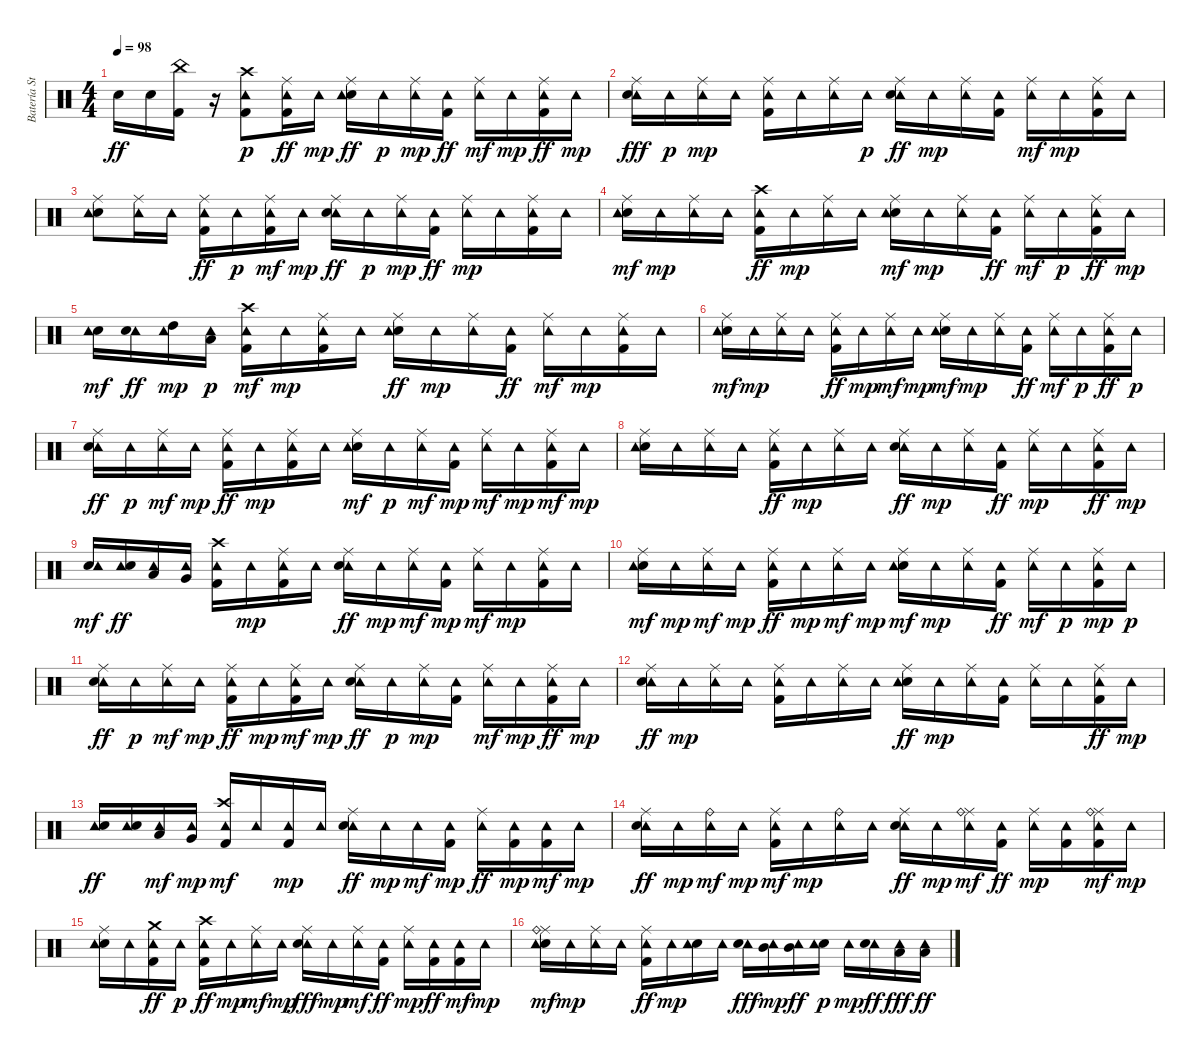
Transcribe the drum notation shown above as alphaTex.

\track ("Batería Standard" "Batería St") {instrument percussion}
\staff {score}
\articulation defaults
\ts (4 4)
\tempo 98
\clef neutral
\ks c "Electric Snare (hit)".16{dy ff} "Electric Snare (hit)".16
("China (hit)" "Kick (hit) 2").16 r.16 ("Crash high (hit)" "Kick (hit) 2" "Tambourine (hit)").8{dy p} ("Ride (middle)" "Tambourine (hit)" "Kick (hit) 2").16{dy ff} "Tambourine (hit)".16{dy mp} ("Electric Snare (hit)" "Tambourine (hit)" "Ride (middle)").16{dy ff} "Tambourine (hit)".16{dy p} ("Ride (middle)" "Tambourine (hit)").16{dy mp} ("Tambourine (hit)" "Kick (hit) 2").16{dy ff} ("Tambourine (hit)" "Ride (middle)").16{dy mf} "Tambourine (hit)".16{dy mp} ("Tambourine (hit)" "Ride (middle)" "Kick (hit) 2").16{dy ff} "Tambourine (hit)".16{dy mp} |
("Ride (middle)" "Tambourine (hit)" "Electric Snare (hit)").16{dy fff} "Tambourine (hit)".16{dy p} ("Ride (middle)" "Tambourine (hit)").16{dy mp} "Tambourine (hit)".16 ("Kick (hit) 2" "Ride (middle)" "Tambourine (hit)").16 "Tambourine (hit)".16 ("Ride (middle)" "Tambourine (hit)").16 "Tambourine (hit)".16{dy p} ("Tambourine (hit)" "Electric Snare (hit)" "Ride (middle)").16{dy ff} "Tambourine (hit)".16{dy mp} ("Ride (middle)" "Tambourine (hit)").16 ("Kick (hit) 2" "Tambourine (hit)").16 ("Ride (middle)" "Tambourine (hit)").16{dy mf} "Tambourine (hit)".16{dy mp} ("Ride (middle)" "Kick (hit) 2" "Tambourine (hit)").16 "Tambourine (hit)".16 |
("Ride (middle)" "Electric Snare (hit)" "Tambourine (hit)").8 ("Ride (middle)" "Tambourine (hit)").16 "Tambourine (hit)".16 ("Tambourine (hit)" "Ride (middle)" "Kick (hit) 2").16{dy ff} "Tambourine (hit)".16{dy p} ("Tambourine (hit)" "Ride (middle)" "Kick (hit) 2").16{dy mf} "Tambourine (hit)".16{dy mp} ("Tambourine (hit)" "Ride (middle)" "Electric Snare (hit)").16{dy ff} "Tambourine (hit)".16{dy p} ("Ride (middle)" "Tambourine (hit)").16{dy mp} ("Tambourine (hit)" "Kick (hit) 2").16{dy ff} ("Ride (middle)" "Tambourine (hit)").16{dy mp} "Tambourine (hit)".16 ("Kick (hit) 2" "Ride (middle)" "Tambourine (hit)").16 "Tambourine (hit)".16 |
("Ride (middle)" "Electric Snare (hit)" "Tambourine (hit)").16{dy mf} "Tambourine (hit)".16{dy mp} ("Tambourine (hit)" "Ride (middle)").16 "Tambourine (hit)".16 ("Kick (hit) 2" "Tambourine (hit)" "Crash high (hit)").16{dy ff} "Tambourine (hit)".16{dy mp} ("Ride (middle)" "Tambourine (hit)").16 "Tambourine (hit)".16 ("Electric Snare (hit)" "Ride (middle)" "Tambourine (hit)").16{dy mf} "Tambourine (hit)".16{dy mp} ("Ride (middle)" "Tambourine (hit)").16 ("Tambourine (hit)" "Kick (hit) 2").16{dy ff} ("Tambourine (hit)" "Ride (middle)").16{dy mf} "Tambourine (hit)".16{dy p} ("Kick (hit) 2" "Tambourine (hit)" "Ride (middle)").16{dy ff} "Tambourine (hit)".16{dy mp} |
("Electric Snare (hit)" "Tambourine (hit)").16{dy mf} ("Tambourine (hit)" "Electric Snare (hit)").16{dy ff} ("High Tom (hit)" "Tambourine (hit)").16{dy mp} ("Low Tom (hit)" "Tambourine (hit)").16{dy p} ("Kick (hit) 2" "Crash high (hit)" "Tambourine (hit)").16{dy mf} "Tambourine (hit)".16{dy mp} ("Tambourine (hit)" "Ride (middle)" "Kick (hit) 2").16 "Tambourine (hit)".16 ("Electric Snare (hit)" "Tambourine (hit)" "Ride (middle)").16{dy ff} "Tambourine (hit)".16{dy mp} ("Ride (middle)" "Tambourine (hit)").16 ("Tambourine (hit)" "Kick (hit) 2").16{dy ff} ("Ride (middle)" "Tambourine (hit)").16{dy mf} "Tambourine (hit)".16{dy mp} ("Kick (hit) 2" "Ride (middle)" "Tambourine (hit)").16 "Tambourine (hit)".16 |
("Electric Snare (hit)" "Tambourine (hit)" "Ride (middle)").16{dy mf} "Tambourine (hit)".16{dy mp} ("Ride (middle)" "Tambourine (hit)").16 "Tambourine (hit)".16 ("Tambourine (hit)" "Ride (middle)" "Kick (hit) 2").16{dy ff} "Tambourine (hit)".16{dy mp} ("Tambourine (hit)" "Ride (middle)").16{dy mf} "Tambourine (hit)".16{dy mp} ("Electric Snare (hit)" "Tambourine (hit)" "Ride (middle)").16{dy mf} "Tambourine (hit)".16{dy mp} ("Ride (middle)" "Tambourine (hit)").16 ("Tambourine (hit)" "Kick (hit) 2").16{dy ff} ("Ride (middle)" "Tambourine (hit)").16{dy mf} "Tambourine (hit)".16{dy p} ("Ride (middle)" "Tambourine (hit)" "Kick (hit) 2").16{dy ff} "Tambourine (hit)".16{dy p} |
("Tambourine (hit)" "Ride (middle)" "Electric Snare (hit)").16{dy ff} "Tambourine (hit)".16{dy p} ("Tambourine (hit)" "Ride (middle)").16{dy mf} "Tambourine (hit)".16{dy mp} ("Ride (middle)" "Tambourine (hit)" "Kick (hit) 2").16{dy ff} "Tambourine (hit)".16{dy mp} ("Ride (middle)" "Kick (hit) 2" "Tambourine (hit)").16 "Tambourine (hit)".16 ("Ride (middle)" "Electric Snare (hit)" "Tambourine (hit)").16{dy mf} "Tambourine (hit)".16{dy p} ("Tambourine (hit)" "Ride (middle)").16{dy mf} ("Kick (hit) 2" "Tambourine (hit)").16{dy mp} ("Ride (middle)" "Tambourine (hit)").16{dy mf} "Tambourine (hit)".16{dy mp} ("Kick (hit) 2" "Ride (middle)" "Tambourine (hit)").16{dy mf} "Tambourine (hit)".16{dy mp} |
("Ride (middle)" "Electric Snare (hit)" "Tambourine (hit)").16 "Tambourine (hit)".16 ("Ride (middle)" "Tambourine (hit)").16 "Tambourine (hit)".16 ("Ride (middle)" "Tambourine (hit)" "Kick (hit) 2").16{dy ff} "Tambourine (hit)".16{dy mp} ("Ride (middle)" "Tambourine (hit)").16 "Tambourine (hit)".16 ("Tambourine (hit)" "Electric Snare (hit)" "Ride (middle)").16{dy ff} "Tambourine (hit)".16{dy mp} ("Tambourine (hit)" "Ride (middle)").16 ("Tambourine (hit)" "Kick (hit) 2").16{dy ff} ("Ride (middle)" "Tambourine (hit)").16{dy mp} "Tambourine (hit)".16 ("Tambourine (hit)" "Ride (middle)" "Kick (hit) 2").16{dy ff} "Tambourine (hit)".16{dy mp} |
("Electric Snare (hit)" "Tambourine (hit)").16{dy mf} ("Tambourine (hit)" "Electric Snare (hit)").16{dy ff} ("Tambourine (hit)" "Low Tom (hit)").16 ("Tambourine (hit)" "Very Low Tom (hit)").16 ("Crash high (hit)" "Tambourine (hit)" "Kick (hit) 2").16 "Tambourine (hit)".16{dy mp} ("Tambourine (hit)" "Ride (middle)" "Kick (hit) 2").16 "Tambourine (hit)".16 ("Tambourine (hit)" "Ride (middle)" "Electric Snare (hit)").16{dy ff} "Tambourine (hit)".16{dy mp} ("Tambourine (hit)" "Ride (middle)").16{dy mf} ("Kick (hit) 2" "Tambourine (hit)").16{dy mp} ("Tambourine (hit)" "Ride (middle)").16{dy mf} "Tambourine (hit)".16{dy mp} ("Kick (hit) 2" "Ride (middle)" "Tambourine (hit)").16 "Tambourine (hit)".16 |
("Electric Snare (hit)" "Ride (middle)" "Tambourine (hit)").16{dy mf} "Tambourine (hit)".16{dy mp} ("Tambourine (hit)" "Ride (middle)").16{dy mf} "Tambourine (hit)".16{dy mp} ("Ride (middle)" "Tambourine (hit)" "Kick (hit) 2").16{dy ff} "Tambourine (hit)".16{dy mp} ("Tambourine (hit)" "Ride (middle)").16{dy mf} "Tambourine (hit)".16{dy mp} ("Electric Snare (hit)" "Tambourine (hit)" "Ride (middle)").16{dy mf} "Tambourine (hit)".16{dy mp} ("Ride (middle)" "Tambourine (hit)").16 ("Tambourine (hit)" "Kick (hit) 2").16{dy ff} ("Tambourine (hit)" "Ride (middle)").16{dy mf} "Tambourine (hit)".16{dy p} ("Kick (hit) 2" "Ride (middle)" "Tambourine (hit)").16{dy mp} "Tambourine (hit)".16{dy p} |
("Tambourine (hit)" "Ride (middle)" "Electric Snare (hit)").16{dy ff} "Tambourine (hit)".16{dy p} ("Ride (middle)" "Tambourine (hit)").16{dy mf} "Tambourine (hit)".16{dy mp} ("Ride (middle)" "Tambourine (hit)" "Kick (hit) 2").16{dy ff} "Tambourine (hit)".16{dy mp} ("Kick (hit) 2" "Tambourine (hit)" "Ride (middle)").16{dy mf} "Tambourine (hit)".16{dy mp} ("Ride (middle)" "Tambourine (hit)" "Electric Snare (hit)").16{dy ff} "Tambourine (hit)".16{dy p} ("Ride (middle)" "Tambourine (hit)").16{dy mp} ("Kick (hit) 2" "Tambourine (hit)").16 ("Tambourine (hit)" "Ride (middle)").16{dy mf} "Tambourine (hit)".16{dy mp} ("Tambourine (hit)" "Kick (hit) 2" "Ride (middle)").16{dy ff} "Tambourine (hit)".16{dy mp} |
("Tambourine (hit)" "Ride (middle)" "Electric Snare (hit)").16{dy ff} "Tambourine (hit)".16{dy mp} ("Tambourine (hit)" "Ride (middle)").16 "Tambourine (hit)".16 ("Kick (hit) 2" "Tambourine (hit)" "Ride (middle)").16 "Tambourine (hit)".16 ("Tambourine (hit)" "Ride (middle)").16 "Tambourine (hit)".16 ("Electric Snare (hit)" "Tambourine (hit)" "Ride (middle)").16{dy ff} "Tambourine (hit)".16{dy mp} ("Ride (middle)" "Tambourine (hit)").16 ("Kick (hit) 2" "Tambourine (hit)").16 ("Tambourine (hit)" "Ride (middle)").16 "Tambourine (hit)".16 ("Tambourine (hit)" "Kick (hit) 2" "Ride (middle)").16{dy ff} "Tambourine (hit)".16{dy mp} |
("Tambourine (hit)" "Electric Snare (hit)").16{dy ff} ("Tambourine (hit)" "Electric Snare (hit)").16 ("Low Tom (hit)" "Tambourine (hit)").16{dy mf} ("Very Low Tom (hit)" "Tambourine (hit)").16{dy mp} ("Crash high (hit)" "Kick (hit) 2" "Tambourine (hit)").16{dy mf} "Tambourine (hit)".16 ("Kick (hit) 2" "Tambourine (hit)").16{dy mp} "Tambourine (hit)".16 ("Ride (middle)" "Tambourine (hit)" "Electric Snare (hit)").16{dy ff} "Tambourine (hit)".16{dy mp} "Tambourine (hit)".16{dy mf} ("Kick (hit) 2" "Tambourine (hit)").16{dy mp} ("Tambourine (hit)" "Ride (middle)").16{dy ff} ("Kick (hit) 2" "Tambourine (hit)").16{dy mp} ("Tambourine (hit)" "Kick (hit) 2").16{dy mf} "Tambourine (hit)".16{dy mp} |
("Ride (middle)" "Tambourine (hit)" "Electric Snare (hit)").16{dy ff} "Tambourine (hit)".16{dy mp} ("Ride (bell)" "Tambourine (hit)").16{dy mf} "Tambourine (hit)".16{dy mp} ("Ride (middle)" "Kick (hit) 2" "Tambourine (hit)").16{dy mf} "Tambourine (hit)".16{dy mp} ("Ride (bell)" "Tambourine (hit)").16 "Tambourine (hit)".16 ("Tambourine (hit)" "Ride (middle)" "Electric Snare (hit)").16{dy ff} "Tambourine (hit)".16{dy mp} ("Ride (middle)" "Ride (bell)" "Tambourine (hit)").16{dy mf} ("Tambourine (hit)" "Kick (hit) 2").16{dy ff} ("Ride (middle)" "Tambourine (hit)").16{dy mp} ("Tambourine (hit)" "Kick (hit) 2").16 ("Tambourine (hit)" "Ride (middle)" "Ride (bell)" "Kick (hit) 2").16{dy mf} "Tambourine (hit)".16{dy mp} |
("Electric Snare (hit)" "Tambourine (hit)" "Ride (middle)").16 "Tambourine (hit)".16 ("Tambourine (hit)" "Crash medium (hit)" "Kick (hit) 2").16{dy ff} "Tambourine (hit)".16{dy p} ("Tambourine (hit)" "Kick (hit) 2" "Crash high (hit)").16{dy ff} "Tambourine (hit)".16{dy mp} ("Ride (middle)" "Tambourine (hit)").16{dy mf} "Tambourine (hit)".16{dy mp} ("Tambourine (hit)" "Ride (middle)" "Electric Snare (hit)").16{dy fff} "Tambourine (hit)".16{dy mp} ("Ride (middle)" "Tambourine (hit)").16{dy mf} ("Tambourine (hit)" "Kick (hit) 2").16{dy ff} ("Ride (middle)" "Tambourine (hit)").16{dy mp} ("Tambourine (hit)" "Kick (hit) 2").16{dy ff} ("Kick (hit) 2" "Tambourine (hit)").16{dy mf} "Tambourine (hit)".16{dy mp} |
("Electric Snare (hit)" "Ride (middle)" "Ride (bell)" "Tambourine (hit)").16{dy mf} "Tambourine (hit)".16{dy mp} ("Ride (middle)" "Tambourine (hit)").16 "Tambourine (hit)".16 ("Tambourine (hit)" "Kick (hit) 2" "Ride (middle)").16{dy ff} "Tambourine (hit)".16{dy mp} ("Electric Snare (hit)" "Tambourine (hit)").16 "Tambourine (hit)".16 ("Tambourine (hit)" "Electric Snare (hit)").16{dy fff} ("Mid Tom (hit)" "Tambourine (hit)").16{dy mp} ("Tambourine (hit)" "Mid Tom (hit)").16{dy ff} ("Electric Snare (hit)" "Tambourine (hit)").16{dy p} "Tambourine (hit)".16{dy mp} ("Tambourine (hit)" "Electric Snare (hit)").16{dy ff} ("Tambourine (hit)" "Low Tom (hit)").16{dy fff} ("Tambourine (hit)" "Low Tom (hit)").16{dy ff}
